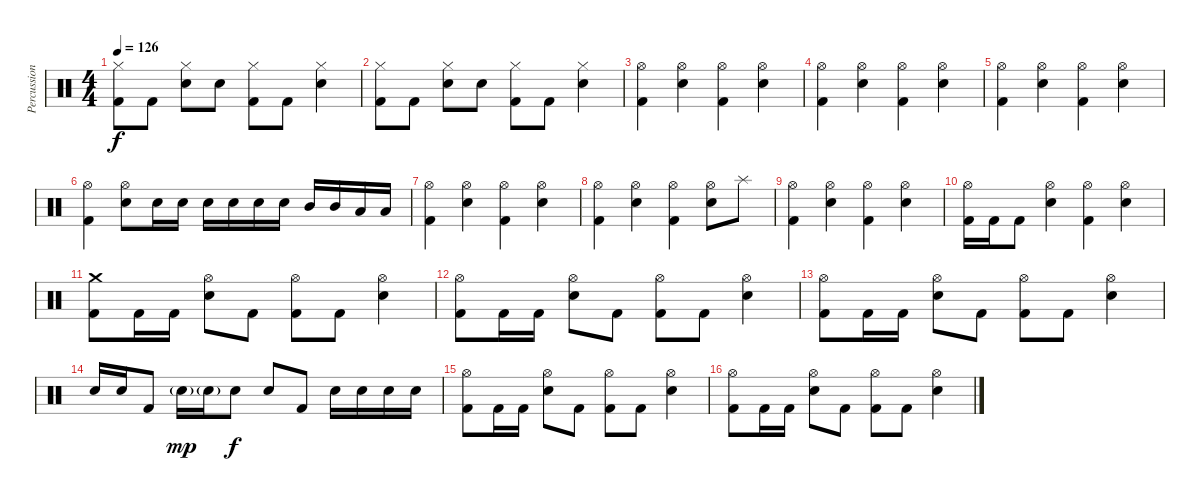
\track ("Percussion" "Percussion") {instrument percussion}
\staff {score}
\articulation defaults
\ts (4 4)
\tempo 126
\clef neutral
\ks c
("Hi-Hat (closed)" "Kick (hit) 2").8{dy f} "Kick (hit) 2".8 ("Hi-Hat (closed)" "Electric Snare (hit)").8 "Electric Snare (hit)".8 ("Hi-Hat (closed)" "Kick (hit) 2").8 "Kick (hit) 2".8 ("Hi-Hat (closed)" "Electric Snare (hit)").4 |
("Hi-Hat (closed)" "Kick (hit) 2").8 "Kick (hit) 2".8 ("Hi-Hat (closed)" "Electric Snare (hit)").8 "Electric Snare (hit)".8 ("Hi-Hat (closed)" "Kick (hit) 2").8 "Kick (hit) 2".8 ("Hi-Hat (closed)" "Electric Snare (hit)").4 |
("Hi-Hat (open)" "Kick (hit) 2").4 ("Hi-Hat (open)" "Electric Snare (hit)").4 ("Hi-Hat (open)" "Kick (hit) 2").4 ("Hi-Hat (open)" "Electric Snare (hit)").4 |
("Hi-Hat (open)" "Kick (hit) 2").4 ("Hi-Hat (open)" "Electric Snare (hit)").4 ("Hi-Hat (open)" "Kick (hit) 2").4 ("Hi-Hat (open)" "Electric Snare (hit)").4 |
("Hi-Hat (open)" "Kick (hit) 2").4 ("Hi-Hat (open)" "Electric Snare (hit)").4 ("Hi-Hat (open)" "Kick (hit) 2").4 ("Hi-Hat (open)" "Electric Snare (hit)").4 |
("Hi-Hat (open)" "Kick (hit) 2").4 ("Hi-Hat (open)" "Electric Snare (hit)").8 "Electric Snare (hit)".16 "Electric Snare (hit)".16 "Electric Snare (hit)".16 "Electric Snare (hit)".16 "Electric Snare (hit)".16 "Electric Snare (hit)".16 "Mid Tom (hit)".16 "Mid Tom (hit)".16 "Low Tom (hit)".16 "Low Tom (hit)".16 |
("Hi-Hat (open)" "Kick (hit) 2").4 ("Hi-Hat (open)" "Electric Snare (hit)").4 ("Hi-Hat (open)" "Kick (hit) 2").4 ("Hi-Hat (open)" "Electric Snare (hit)").4 |
("Hi-Hat (open)" "Kick (hit) 2").4 ("Hi-Hat (open)" "Electric Snare (hit)").4 ("Hi-Hat (open)" "Kick (hit) 2").4 ("Hi-Hat (open)" "Electric Snare (hit)").8 "Splash (hit)".8 |
("Hi-Hat (open)" "Kick (hit) 2").4 ("Hi-Hat (open)" "Electric Snare (hit)").4 ("Hi-Hat (open)" "Kick (hit) 2").4 ("Hi-Hat (open)" "Electric Snare (hit)").4 |
("Hi-Hat (open)" "Kick (hit) 2").16 "Kick (hit) 2".16 "Kick (hit) 2".8 ("Hi-Hat (open)" "Electric Snare (hit)").4 ("Hi-Hat (open)" "Kick (hit) 2").4 ("Hi-Hat (open)" "Electric Snare (hit)").4 |
("Crash medium (hit)" "Kick (hit) 2").8 "Kick (hit) 2".16 "Kick (hit) 2".16 ("Hi-Hat (open)" "Electric Snare (hit)").8 "Kick (hit) 2".8 ("Hi-Hat (open)" "Kick (hit) 2").8 "Kick (hit) 2".8 ("Hi-Hat (open)" "Electric Snare (hit)").4 |
("Hi-Hat (open)" "Kick (hit) 2").8 "Kick (hit) 2".16 "Kick (hit) 2".16 ("Hi-Hat (open)" "Electric Snare (hit)").8 "Kick (hit) 2".8 ("Hi-Hat (open)" "Kick (hit) 2").8 "Kick (hit) 2".8 ("Hi-Hat (open)" "Electric Snare (hit)").4 |
("Hi-Hat (open)" "Kick (hit) 2").8 "Kick (hit) 2".16 "Kick (hit) 2".16 ("Hi-Hat (open)" "Electric Snare (hit)").8 "Kick (hit) 2".8 ("Hi-Hat (open)" "Kick (hit) 2").8 "Kick (hit) 2".8 ("Hi-Hat (open)" "Electric Snare (hit)").4 |
"Electric Snare (hit)".16 "Electric Snare (hit)".16 "Kick (hit) 2".8 "Electric Snare (hit)"{g}.16{dy mp} "Electric Snare (hit)"{g}.16 "Electric Snare (hit)".8{dy f} "Electric Snare (hit)".8 "Kick (hit) 2".8 "Electric Snare (hit)".16 "Electric Snare (hit)".16 "Electric Snare (hit)".16 "Electric Snare (hit)".16 |
("Hi-Hat (open)" "Kick (hit) 2").8 "Kick (hit) 2".16 "Kick (hit) 2".16 ("Hi-Hat (open)" "Electric Snare (hit)").8 "Kick (hit) 2".8 ("Hi-Hat (open)" "Kick (hit) 2").8 "Kick (hit) 2".8 ("Hi-Hat (open)" "Electric Snare (hit)").4 |
("Hi-Hat (open)" "Kick (hit) 2").8 "Kick (hit) 2".16 "Kick (hit) 2".16 ("Hi-Hat (open)" "Electric Snare (hit)").8 "Kick (hit) 2".8 ("Hi-Hat (open)" "Kick (hit) 2").8 "Kick (hit) 2".8 ("Hi-Hat (open)" "Electric Snare (hit)").4
